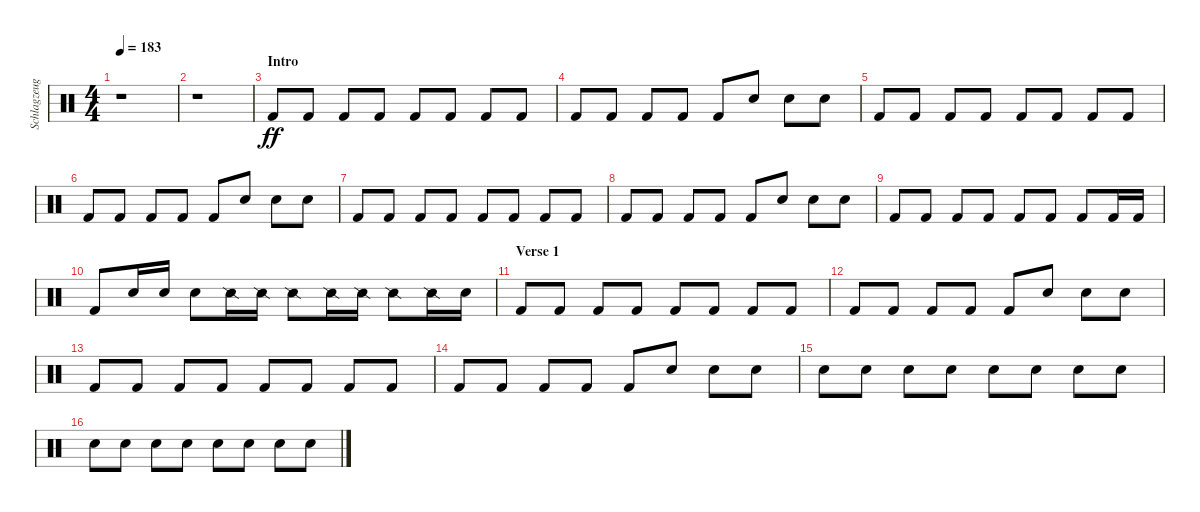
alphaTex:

\track ("Schlagzeug - Bela B." "Schlagzeug") {instrument percussion}
\staff {score}
\articulation defaults
\ts (4 4)
\tempo 183
\clef neutral
\ks c
r.1{dy ff} |
r.1 |
\section ("" "Intro")
"Kick (hit) 2".8 "Kick (hit) 2".8 "Kick (hit) 2".8 "Kick (hit) 2".8 "Kick (hit) 2".8 "Kick (hit) 2".8 "Kick (hit) 2".8 "Kick (hit) 2".8 |
"Kick (hit) 2".8 "Kick (hit) 2".8 "Kick (hit) 2".8 "Kick (hit) 2".8 "Kick (hit) 2".8 "Metronome (bell)".8 "Metronome (bell)".8 "Metronome (bell)".8 |
"Kick (hit) 2".8 "Kick (hit) 2".8 "Kick (hit) 2".8 "Kick (hit) 2".8 "Kick (hit) 2".8 "Kick (hit) 2".8 "Kick (hit) 2".8 "Kick (hit) 2".8 |
"Kick (hit) 2".8 "Kick (hit) 2".8 "Kick (hit) 2".8 "Kick (hit) 2".8 "Kick (hit) 2".8 "Metronome (bell)".8 "Metronome (bell)".8 "Metronome (bell)".8 |
"Kick (hit) 2".8 "Kick (hit) 2".8 "Kick (hit) 2".8 "Kick (hit) 2".8 "Kick (hit) 2".8 "Kick (hit) 2".8 "Kick (hit) 2".8 "Kick (hit) 2".8 |
"Kick (hit) 2".8 "Kick (hit) 2".8 "Kick (hit) 2".8 "Kick (hit) 2".8 "Kick (hit) 2".8 "Metronome (bell)".8 "Metronome (bell)".8 "Metronome (bell)".8 |
"Kick (hit) 2".8 "Kick (hit) 2".8 "Kick (hit) 2".8 "Kick (hit) 2".8 "Kick (hit) 2".8 "Kick (hit) 2".8 "Kick (hit) 2".8 "Kick (hit) 2".16{volume 12} "Kick (hit) 2".16 |
"Kick (hit) 2".8 "Metronome (bell)".16 "Metronome (bell)".16 "Metronome (bell)".8 "Snare (side stick) 2".16 "Snare (side stick) 2".16 "Snare (side stick) 2".8 "Snare (side stick) 2".16 "Snare (side stick) 2".16 "Snare (side stick) 2".8 "Snare (side stick) 2".16 "Metronome (bell)".16 |
\section ("" "Verse 1")
"Kick (hit) 2".8 "Kick (hit) 2".8 "Kick (hit) 2".8 "Kick (hit) 2".8 "Kick (hit) 2".8 "Kick (hit) 2".8 "Kick (hit) 2".8 "Kick (hit) 2".8 |
"Kick (hit) 2".8 "Kick (hit) 2".8 "Kick (hit) 2".8 "Kick (hit) 2".8 "Kick (hit) 2".8 "Metronome (bell)".8 "Metronome (bell)".8 "Metronome (bell)".8 |
"Kick (hit) 2".8 "Kick (hit) 2".8 "Kick (hit) 2".8 "Kick (hit) 2".8 "Kick (hit) 2".8 "Kick (hit) 2".8 "Kick (hit) 2".8 "Kick (hit) 2".8 |
"Kick (hit) 2".8 "Kick (hit) 2".8 "Kick (hit) 2".8 "Kick (hit) 2".8 "Kick (hit) 2".8 "Metronome (bell)".8 "Metronome (bell)".8 "Metronome (bell)".8 |
"Snare (hit) 2".8 "Snare (hit) 2".8 "Snare (hit) 2".8 "Snare (hit) 2".8 "Snare (hit) 2".8 "Snare (hit) 2".8 "Snare (hit) 2".8 "Snare (hit) 2".8 |
"Snare (hit) 2".8 "Snare (hit) 2".8 "Snare (hit) 2".8 "Snare (hit) 2".8 "Snare (hit) 2".8 "Snare (hit) 2".8 "Snare (hit) 2".8 "Snare (hit) 2".8
